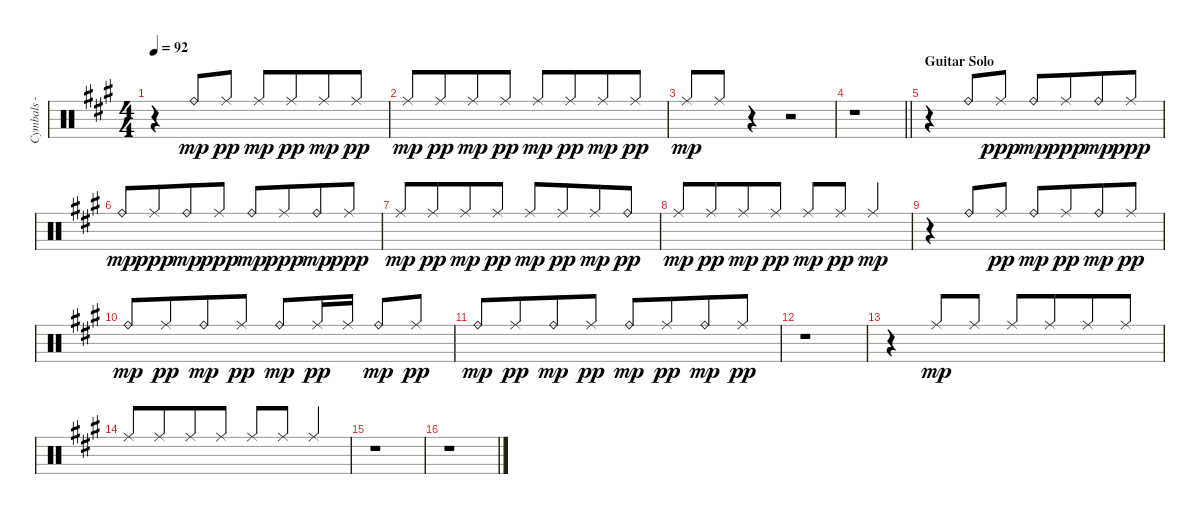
\track ("Cymbals - ride" "Cymbals - ") {instrument percussion}
\staff {score}
\articulation defaults
\ts (4 4)
\tempo 92
\clef neutral
\ks f#minor
r.4{dy pp} "Ride (bell)".8{dy mp beam Up} "Ride (middle)".8{dy pp beam Up} "Ride (middle)".8{dy mp beam Up} "Ride (middle)".8{dy pp beam Up beam merge} "Ride (middle)".8{dy mp beam Up} "Ride (middle)".8{dy pp beam Up} |
"Ride (middle)".8{dy mp beam Up} "Ride (middle)".8{dy pp beam Up beam merge} "Ride (middle)".8{dy mp beam Up} "Ride (middle)".8{dy pp beam Up} "Ride (middle)".8{dy mp beam Up} "Ride (middle)".8{dy pp beam Up beam merge} "Ride (middle)".8{dy mp beam Up} "Ride (middle)".8{dy pp beam Up} |
"Ride (middle)".8{dy mp beam Up} "Ride (middle)".8{beam Up} r.4 r.2 |
\barLineRight lightlight
r.1 |
\section ("" "Guitar Solo")
r.4 "Ride (bell)".8{beam Up} "Ride (middle)".8{dy ppp beam Up} "Ride (bell)".8{dy mp beam Up} "Ride (middle)".8{dy ppp beam Up beam merge} "Ride (bell)".8{dy mp beam Up} "Ride (middle)".8{dy ppp beam Up} |
"Ride (bell)".8{dy mp beam Up} "Ride (middle)".8{dy ppp beam Up beam merge} "Ride (bell)".8{dy mp beam Up} "Ride (middle)".8{dy ppp beam Up} "Ride (bell)".8{dy mp beam Up} "Ride (middle)".8{dy ppp beam Up beam merge} "Ride (bell)".8{dy mp beam Up} "Ride (middle)".8{dy ppp beam Up} |
"Ride (middle)".8{dy mp beam Up} "Ride (middle)".8{dy pp beam Up beam merge} "Ride (middle)".8{dy mp beam Up} "Ride (middle)".8{dy pp beam Up} "Ride (middle)".8{dy mp beam Up} "Ride (middle)".8{dy pp beam Up beam merge} "Ride (middle)".8{dy mp beam Up} "Ride (bell)".8{dy pp beam Up} |
"Ride (middle)".8{dy mp beam Up} "Ride (middle)".8{dy pp beam Up beam merge} "Ride (middle)".8{dy mp beam Up} "Ride (middle)".8{dy pp beam Up} "Ride (middle)".8{dy mp beam Up} "Ride (middle)".8{dy pp beam Up} "Ride (middle)".4{dy mp beam Up} |
r.4 "Ride (bell)".8{beam Up} "Ride (middle)".8{dy pp beam Up} "Ride (bell)".8{dy mp beam Up} "Ride (middle)".8{dy pp beam Up beam merge} "Ride (bell)".8{dy mp beam Up} "Ride (middle)".8{dy pp beam Up} |
"Ride (bell)".8{dy mp beam Up} "Ride (middle)".8{dy pp beam Up beam merge} "Ride (bell)".8{dy mp beam Up} "Ride (middle)".8{dy pp beam Up} "Ride (bell)".8{dy mp beam Up} "Ride (middle)".16{dy pp beam Up} "Ride (middle)".16{beam Up beam split} "Ride (bell)".8{dy mp beam Up} "Ride (middle)".8{dy pp beam Up} |
"Ride (bell)".8{dy mp beam Up} "Ride (middle)".8{dy pp beam Up beam merge} "Ride (bell)".8{dy mp beam Up} "Ride (middle)".8{dy pp beam Up} "Ride (bell)".8{dy mp beam Up} "Ride (middle)".8{dy pp beam Up beam merge} "Ride (bell)".8{dy mp beam Up} "Ride (middle)".8{dy pp beam Up} |
r.1 |
r.4{beam Up} "Ride (middle)".8{dy mp beam Up} "Ride (middle)".8{beam Up} "Ride (middle)".8{beam Up} "Ride (middle)".8{beam Up beam merge} "Ride (middle)".8{beam Up} "Ride (middle)".8{beam Up} |
"Ride (middle)".8{beam Up} "Ride (middle)".8{beam Up beam merge} "Ride (middle)".8{beam Up} "Ride (middle)".8{beam Up} "Ride (middle)".8{beam Up} "Ride (middle)".8{beam Up} "Ride (middle)".4{beam Up} |
r.1 |
r.1
